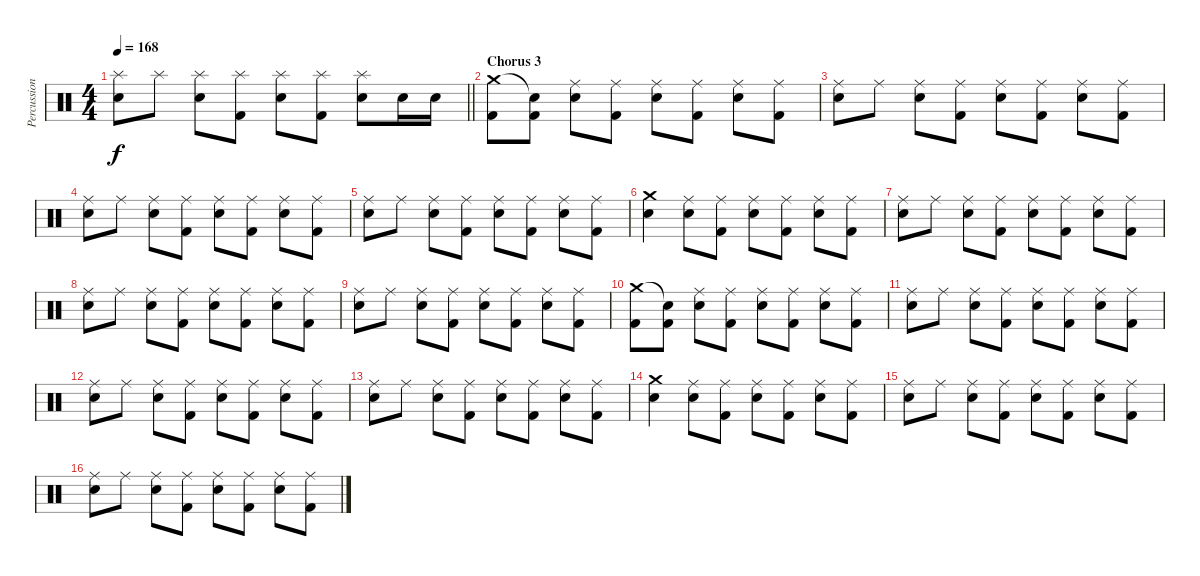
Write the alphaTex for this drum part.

\track ("Percussion" "Percussion") {instrument percussion}
\staff {score}
\articulation defaults
\ts (4 4)
\tempo 168
\clef neutral
\barLineRight lightlight
\ks c
("Splash (hit)" "Snare (hit) 2").8{dy f} "Splash (hit)".8 ("Splash (hit)" "Snare (hit) 2").8 ("Splash (hit)" "Kick (hit) 2").8 ("Splash (hit)" "Snare (hit) 2").8 ("Splash (hit)" "Kick (hit) 2").8 ("Splash (hit)" "Snare (hit) 2").8 "Snare (hit) 2".16 "Snare (hit) 2".16 |
\section ("" "Chorus 3")
("Crash medium (hit)" "Kick (hit) 2").8 ("Snare (hit)"{t} "Kick (hit) 2").8 ("Ride (middle)" "Snare (hit) 2").8 ("Ride (middle)" "Kick (hit) 2").8 ("Ride (middle)" "Snare (hit) 2").8 ("Ride (middle)" "Kick (hit) 2").8 ("Ride (middle)" "Snare (hit) 2").8 ("Ride (middle)" "Kick (hit) 2").8 |
("Ride (middle)" "Snare (hit) 2").8 "Ride (middle)".8 ("Ride (middle)" "Snare (hit) 2").8 ("Ride (middle)" "Kick (hit) 2").8 ("Ride (middle)" "Snare (hit) 2").8 ("Ride (middle)" "Kick (hit) 2").8 ("Ride (middle)" "Snare (hit) 2").8 ("Ride (middle)" "Kick (hit) 2").8 |
("Ride (middle)" "Snare (hit) 2").8 "Ride (middle)".8 ("Ride (middle)" "Snare (hit) 2").8 ("Ride (middle)" "Kick (hit) 2").8 ("Ride (middle)" "Snare (hit) 2").8 ("Ride (middle)" "Kick (hit) 2").8 ("Ride (middle)" "Snare (hit) 2").8 ("Ride (middle)" "Kick (hit) 2").8 |
("Ride (middle)" "Snare (hit) 2").8 "Ride (middle)".8 ("Ride (middle)" "Snare (hit) 2").8 ("Ride (middle)" "Kick (hit) 2").8 ("Ride (middle)" "Snare (hit) 2").8 ("Ride (middle)" "Kick (hit) 2").8 ("Ride (middle)" "Snare (hit) 2").8 ("Ride (middle)" "Kick (hit) 2").8 |
("Crash medium (hit)" "Snare (hit) 2").4 ("Ride (middle)" "Snare (hit) 2").8 ("Ride (middle)" "Kick (hit) 2").8 ("Ride (middle)" "Snare (hit) 2").8 ("Ride (middle)" "Kick (hit) 2").8 ("Ride (middle)" "Snare (hit) 2").8 ("Ride (middle)" "Kick (hit) 2").8 |
("Ride (middle)" "Snare (hit) 2").8 "Ride (middle)".8 ("Ride (middle)" "Snare (hit) 2").8 ("Ride (middle)" "Kick (hit) 2").8 ("Ride (middle)" "Snare (hit) 2").8 ("Ride (middle)" "Kick (hit) 2").8 ("Ride (middle)" "Snare (hit) 2").8 ("Ride (middle)" "Kick (hit) 2").8 |
("Ride (middle)" "Snare (hit) 2").8 "Ride (middle)".8 ("Ride (middle)" "Snare (hit) 2").8 ("Ride (middle)" "Kick (hit) 2").8 ("Ride (middle)" "Snare (hit) 2").8 ("Ride (middle)" "Kick (hit) 2").8 ("Ride (middle)" "Snare (hit) 2").8 ("Ride (middle)" "Kick (hit) 2").8 |
("Ride (middle)" "Snare (hit) 2").8 "Ride (middle)".8 ("Ride (middle)" "Snare (hit) 2").8 ("Ride (middle)" "Kick (hit) 2").8 ("Ride (middle)" "Snare (hit) 2").8 ("Ride (middle)" "Kick (hit) 2").8 ("Ride (middle)" "Snare (hit) 2").8 ("Ride (middle)" "Kick (hit) 2").8 |
("Crash medium (hit)" "Kick (hit) 2").8 ("Snare (hit)"{t} "Kick (hit) 2").8 ("Ride (middle)" "Snare (hit) 2").8 ("Ride (middle)" "Kick (hit) 2").8 ("Ride (middle)" "Snare (hit) 2").8 ("Ride (middle)" "Kick (hit) 2").8 ("Ride (middle)" "Snare (hit) 2").8 ("Ride (middle)" "Kick (hit) 2").8 |
("Ride (middle)" "Snare (hit) 2").8 "Ride (middle)".8 ("Ride (middle)" "Snare (hit) 2").8 ("Ride (middle)" "Kick (hit) 2").8 ("Ride (middle)" "Snare (hit) 2").8 ("Ride (middle)" "Kick (hit) 2").8 ("Ride (middle)" "Snare (hit) 2").8 ("Ride (middle)" "Kick (hit) 2").8 |
("Ride (middle)" "Snare (hit) 2").8 "Ride (middle)".8 ("Ride (middle)" "Snare (hit) 2").8 ("Ride (middle)" "Kick (hit) 2").8 ("Ride (middle)" "Snare (hit) 2").8 ("Ride (middle)" "Kick (hit) 2").8 ("Ride (middle)" "Snare (hit) 2").8 ("Ride (middle)" "Kick (hit) 2").8 |
("Ride (middle)" "Snare (hit) 2").8 "Ride (middle)".8 ("Ride (middle)" "Snare (hit) 2").8 ("Ride (middle)" "Kick (hit) 2").8 ("Ride (middle)" "Snare (hit) 2").8 ("Ride (middle)" "Kick (hit) 2").8 ("Ride (middle)" "Snare (hit) 2").8 ("Ride (middle)" "Kick (hit) 2").8 |
("Crash medium (hit)" "Snare (hit) 2").4 ("Ride (middle)" "Snare (hit) 2").8 ("Ride (middle)" "Kick (hit) 2").8 ("Ride (middle)" "Snare (hit) 2").8 ("Ride (middle)" "Kick (hit) 2").8 ("Ride (middle)" "Snare (hit) 2").8 ("Ride (middle)" "Kick (hit) 2").8 |
("Ride (middle)" "Snare (hit) 2").8 "Ride (middle)".8 ("Ride (middle)" "Snare (hit) 2").8 ("Ride (middle)" "Kick (hit) 2").8 ("Ride (middle)" "Snare (hit) 2").8 ("Ride (middle)" "Kick (hit) 2").8 ("Ride (middle)" "Snare (hit) 2").8 ("Ride (middle)" "Kick (hit) 2").8 |
("Ride (middle)" "Snare (hit) 2").8 "Ride (middle)".8 ("Ride (middle)" "Snare (hit) 2").8 ("Ride (middle)" "Kick (hit) 2").8 ("Ride (middle)" "Snare (hit) 2").8 ("Ride (middle)" "Kick (hit) 2").8 ("Ride (middle)" "Snare (hit) 2").8 ("Ride (middle)" "Kick (hit) 2").8
